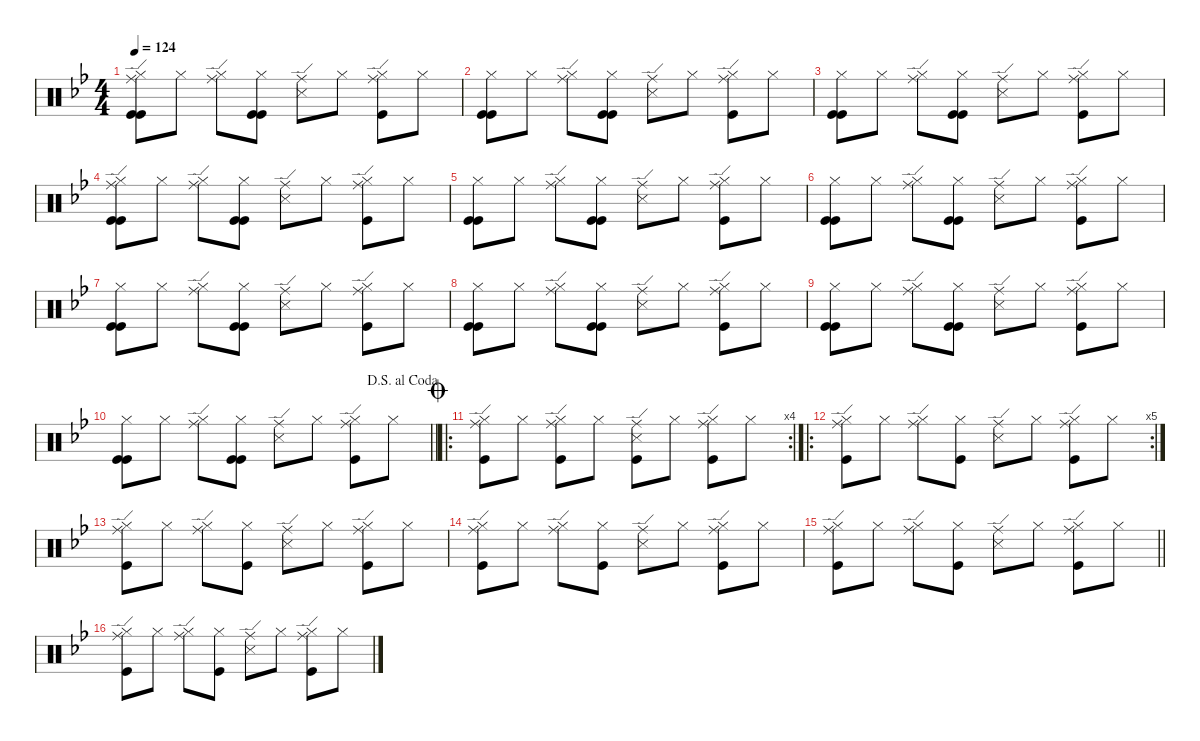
\defaultSystemsLayout 4
\hideDynamics
\bracketExtendMode nobrackets
\singleTrackTrackNamePolicy hidden
\multiTrackTrackNamePolicy hidden
\firstSystemTrackNameMode fullname
\otherSystemsTrackNameOrientation horizontal
\track ("Percussion" "drm.") {defaultSystemsLayout 4 instrument percussion}
\staff {score}
\articulation defaults
\ts (4 4)
\tempo 124
\clef neutral
\ks gminor
("Ride (edge)"{acc forcenatural} "Hi-Hat (closed)"{acc forcenatural} "Kick (hit)"{acc forcenatural} "Kick (hit)"{acc forcenatural}).8{dy f beam Down} "Hi-Hat (closed)"{acc forcenatural}.8{beam Down} ("Ride (edge)"{acc forcenatural} "Hi-Hat (closed)"{acc forcenatural}).8{beam Down} ("Hi-Hat (closed)"{acc forcenatural} "Kick (hit)"{acc forcenatural} "Kick (hit)"{acc forcenatural}).8{beam Down} ("Ride (edge)"{acc forcenatural} "Snare (side stick) 3"{acc forcenatural}).8{beam Down} "Hi-Hat (closed)"{acc forcenatural}.8{beam Down} ("Ride (edge)"{acc forcenatural} "Hi-Hat (closed)"{acc forcenatural} "Kick (hit)"{acc forcenatural}).8{beam Down} "Hi-Hat (closed)"{acc forcenatural}.8{beam Down} |
("Hi-Hat (closed)"{acc forcenatural} "Kick (hit)"{acc forcenatural} "Kick (hit)"{acc forcenatural}).8{beam Down} "Hi-Hat (closed)"{acc forcenatural}.8{beam Down} ("Ride (edge)"{acc forcenatural} "Hi-Hat (closed)"{acc forcenatural}).8{beam Down} ("Hi-Hat (closed)"{acc forcenatural} "Kick (hit)"{acc forcenatural} "Kick (hit)"{acc forcenatural}).8{beam Down} ("Ride (edge)"{acc forcenatural} "Snare (side stick) 3"{acc forcenatural}).8{beam Down} "Hi-Hat (closed)"{acc forcenatural}.8{beam Down} ("Ride (edge)"{acc forcenatural} "Hi-Hat (closed)"{acc forcenatural} "Kick (hit)"{acc forcenatural}).8{beam Down} "Hi-Hat (closed)"{acc forcenatural}.8{beam Down} |
("Hi-Hat (closed)"{acc forcenatural} "Kick (hit)"{acc forcenatural} "Kick (hit)"{acc forcenatural}).8{beam Down} "Hi-Hat (closed)"{acc forcenatural}.8{beam Down} ("Ride (edge)"{acc forcenatural} "Hi-Hat (closed)"{acc forcenatural}).8{beam Down} ("Hi-Hat (closed)"{acc forcenatural} "Kick (hit)"{acc forcenatural} "Kick (hit)"{acc forcenatural}).8{beam Down} ("Ride (edge)"{acc forcenatural} "Snare (side stick) 3"{acc forcenatural}).8{beam Down} "Hi-Hat (closed)"{acc forcenatural}.8{beam Down} ("Ride (edge)"{acc forcenatural} "Hi-Hat (closed)"{acc forcenatural} "Kick (hit)"{acc forcenatural}).8{beam Down} "Hi-Hat (closed)"{acc forcenatural}.8{beam Down} |
("Ride (edge)"{acc forcenatural} "Hi-Hat (closed)"{acc forcenatural} "Kick (hit)"{acc forcenatural} "Kick (hit)"{acc forcenatural}).8{beam Down} "Hi-Hat (closed)"{acc forcenatural}.8{beam Down} ("Ride (edge)"{acc forcenatural} "Hi-Hat (closed)"{acc forcenatural}).8{beam Down} ("Hi-Hat (closed)"{acc forcenatural} "Kick (hit)"{acc forcenatural} "Kick (hit)"{acc forcenatural}).8{beam Down} ("Ride (edge)"{acc forcenatural} "Snare (side stick) 3"{acc forcenatural}).8{beam Down} "Hi-Hat (closed)"{acc forcenatural}.8{beam Down} ("Ride (edge)"{acc forcenatural} "Hi-Hat (closed)"{acc forcenatural} "Kick (hit)"{acc forcenatural}).8{beam Down} "Hi-Hat (closed)"{acc forcenatural}.8{beam Down} |
("Hi-Hat (closed)"{acc forcenatural} "Kick (hit)"{acc forcenatural} "Kick (hit)"{acc forcenatural}).8{beam Down} "Hi-Hat (closed)"{acc forcenatural}.8{beam Down} ("Ride (edge)"{acc forcenatural} "Hi-Hat (closed)"{acc forcenatural}).8{beam Down} ("Hi-Hat (closed)"{acc forcenatural} "Kick (hit)"{acc forcenatural} "Kick (hit)"{acc forcenatural}).8{beam Down} ("Ride (edge)"{acc forcenatural} "Snare (side stick) 3"{acc forcenatural}).8{beam Down} "Hi-Hat (closed)"{acc forcenatural}.8{beam Down} ("Ride (edge)"{acc forcenatural} "Hi-Hat (closed)"{acc forcenatural} "Kick (hit)"{acc forcenatural}).8{beam Down} "Hi-Hat (closed)"{acc forcenatural}.8{beam Down} |
("Hi-Hat (closed)"{acc forcenatural} "Kick (hit)"{acc forcenatural} "Kick (hit)"{acc forcenatural}).8{beam Down} "Hi-Hat (closed)"{acc forcenatural}.8{beam Down} ("Ride (edge)"{acc forcenatural} "Hi-Hat (closed)"{acc forcenatural}).8{beam Down} ("Hi-Hat (closed)"{acc forcenatural} "Kick (hit)"{acc forcenatural} "Kick (hit)"{acc forcenatural}).8{beam Down} ("Ride (edge)"{acc forcenatural} "Snare (side stick) 3"{acc forcenatural}).8{beam Down} "Hi-Hat (closed)"{acc forcenatural}.8{beam Down} ("Ride (edge)"{acc forcenatural} "Hi-Hat (closed)"{acc forcenatural} "Kick (hit)"{acc forcenatural}).8{beam Down} "Hi-Hat (closed)"{acc forcenatural}.8{beam Down} |
("Hi-Hat (closed)"{acc forcenatural} "Kick (hit)"{acc forcenatural} "Kick (hit)"{acc forcenatural}).8{beam Down} "Hi-Hat (closed)"{acc forcenatural}.8{beam Down} ("Ride (edge)"{acc forcenatural} "Hi-Hat (closed)"{acc forcenatural}).8{beam Down} ("Hi-Hat (closed)"{acc forcenatural} "Kick (hit)"{acc forcenatural} "Kick (hit)"{acc forcenatural}).8{beam Down} ("Ride (edge)"{acc forcenatural} "Snare (side stick) 3"{acc forcenatural}).8{beam Down} "Hi-Hat (closed)"{acc forcenatural}.8{beam Down} ("Ride (edge)"{acc forcenatural} "Hi-Hat (closed)"{acc forcenatural} "Kick (hit)"{acc forcenatural}).8{beam Down} "Hi-Hat (closed)"{acc forcenatural}.8{beam Down} |
("Hi-Hat (closed)"{acc forcenatural} "Kick (hit)"{acc forcenatural} "Kick (hit)"{acc forcenatural}).8{beam Down} "Hi-Hat (closed)"{acc forcenatural}.8{beam Down} ("Ride (edge)"{acc forcenatural} "Hi-Hat (closed)"{acc forcenatural}).8{beam Down} ("Hi-Hat (closed)"{acc forcenatural} "Kick (hit)"{acc forcenatural} "Kick (hit)"{acc forcenatural}).8{beam Down} ("Ride (edge)"{acc forcenatural} "Snare (side stick) 3"{acc forcenatural}).8{beam Down} "Hi-Hat (closed)"{acc forcenatural}.8{beam Down} ("Ride (edge)"{acc forcenatural} "Hi-Hat (closed)"{acc forcenatural} "Kick (hit)"{acc forcenatural}).8{beam Down} "Hi-Hat (closed)"{acc forcenatural}.8{beam Down} |
("Hi-Hat (closed)"{acc forcenatural} "Kick (hit)"{acc forcenatural} "Kick (hit)"{acc forcenatural}).8{beam Down} "Hi-Hat (closed)"{acc forcenatural}.8{beam Down} ("Ride (edge)"{acc forcenatural} "Hi-Hat (closed)"{acc forcenatural}).8{beam Down} ("Hi-Hat (closed)"{acc forcenatural} "Kick (hit)"{acc forcenatural} "Kick (hit)"{acc forcenatural}).8{beam Down} ("Ride (edge)"{acc forcenatural} "Snare (side stick) 3"{acc forcenatural}).8{beam Down} "Hi-Hat (closed)"{acc forcenatural}.8{beam Down} ("Ride (edge)"{acc forcenatural} "Hi-Hat (closed)"{acc forcenatural} "Kick (hit)"{acc forcenatural}).8{beam Down} "Hi-Hat (closed)"{acc forcenatural}.8{beam Down} |
\jump dalsegnoalcoda
\barLineRight lightlight
("Hi-Hat (closed)"{acc forcenatural} "Kick (hit)"{acc forcenatural} "Kick (hit)"{acc forcenatural}).8{beam Down} "Hi-Hat (closed)"{acc forcenatural}.8{beam Down} ("Ride (edge)"{acc forcenatural} "Hi-Hat (closed)"{acc forcenatural}).8{beam Down} ("Hi-Hat (closed)"{acc forcenatural} "Kick (hit)"{acc forcenatural} "Kick (hit)"{acc forcenatural}).8{beam Down} ("Ride (edge)"{acc forcenatural} "Snare (side stick) 3"{acc forcenatural}).8{beam Down} "Hi-Hat (closed)"{acc forcenatural}.8{beam Down} ("Ride (edge)"{acc forcenatural} "Hi-Hat (closed)"{acc forcenatural} "Kick (hit)"{acc forcenatural}).8{beam Down} "Hi-Hat (closed)"{acc forcenatural}.8{beam Down} |
\ro
\rc 4
\jump coda
("Ride (edge)"{acc forcenatural} "Hi-Hat (closed)"{acc forcenatural} "Kick (hit)"{acc forcenatural}).8{beam Down} "Hi-Hat (closed)"{acc forcenatural}.8{beam Down} ("Ride (edge)"{acc forcenatural} "Hi-Hat (closed)"{acc forcenatural} "Kick (hit)"{acc forcenatural}).8{beam Down} "Hi-Hat (closed)"{acc forcenatural}.8{beam Down} ("Snare (side stick) 3"{acc forcenatural} "Kick (hit)"{acc forcenatural} "Ride (edge)"{acc forcenatural}).8{beam Down} "Hi-Hat (closed)"{acc forcenatural}.8{beam Down} ("Ride (edge)"{acc forcenatural} "Hi-Hat (closed)"{acc forcenatural} "Kick (hit)"{acc forcenatural}).8{beam Down} "Hi-Hat (closed)"{acc forcenatural}.8{beam Down} |
\ro
\rc 5
("Ride (edge)"{acc forcenatural} "Hi-Hat (closed)"{acc forcenatural} "Kick (hit)"{acc forcenatural}).8{beam Down} "Hi-Hat (closed)"{acc forcenatural}.8{beam Down} ("Ride (edge)"{acc forcenatural} "Hi-Hat (closed)"{acc forcenatural}).8{beam Down} ("Hi-Hat (closed)"{acc forcenatural} "Kick (hit)"{acc forcenatural}).8{beam Down} ("Ride (edge)"{acc forcenatural} "Snare (side stick) 3"{acc forcenatural}).8{beam Down} "Hi-Hat (closed)"{acc forcenatural}.8{beam Down} ("Ride (edge)"{acc forcenatural} "Hi-Hat (closed)"{acc forcenatural} "Kick (hit)"{acc forcenatural}).8{beam Down} "Hi-Hat (closed)"{acc forcenatural}.8{beam Down} |
("Ride (edge)"{acc forcenatural} "Hi-Hat (closed)"{acc forcenatural} "Kick (hit)"{acc forcenatural}).8{beam Down} "Hi-Hat (closed)"{acc forcenatural}.8{beam Down} ("Ride (edge)"{acc forcenatural} "Hi-Hat (closed)"{acc forcenatural}).8{beam Down} ("Hi-Hat (closed)"{acc forcenatural} "Kick (hit)"{acc forcenatural}).8{beam Down} ("Ride (edge)"{acc forcenatural} "Snare (side stick) 3"{acc forcenatural}).8{beam Down} "Hi-Hat (closed)"{acc forcenatural}.8{beam Down} ("Ride (edge)"{acc forcenatural} "Hi-Hat (closed)"{acc forcenatural} "Kick (hit)"{acc forcenatural}).8{beam Down} "Hi-Hat (closed)"{acc forcenatural}.8{beam Down} |
("Ride (edge)"{acc forcenatural} "Hi-Hat (closed)"{acc forcenatural} "Kick (hit)"{acc forcenatural}).8{beam Down} "Hi-Hat (closed)"{acc forcenatural}.8{beam Down} ("Ride (edge)"{acc forcenatural} "Hi-Hat (closed)"{acc forcenatural}).8{beam Down} ("Hi-Hat (closed)"{acc forcenatural} "Kick (hit)"{acc forcenatural}).8{beam Down} ("Ride (edge)"{acc forcenatural} "Snare (side stick) 3"{acc forcenatural}).8{beam Down} "Hi-Hat (closed)"{acc forcenatural}.8{beam Down} ("Ride (edge)"{acc forcenatural} "Hi-Hat (closed)"{acc forcenatural} "Kick (hit)"{acc forcenatural}).8{beam Down} "Hi-Hat (closed)"{acc forcenatural}.8{beam Down} |
\barLineRight lightlight
("Ride (edge)"{acc forcenatural} "Hi-Hat (closed)"{acc forcenatural} "Kick (hit)"{acc forcenatural}).8{beam Down} "Hi-Hat (closed)"{acc forcenatural}.8{beam Down} ("Ride (edge)"{acc forcenatural} "Hi-Hat (closed)"{acc forcenatural}).8{beam Down} ("Hi-Hat (closed)"{acc forcenatural} "Kick (hit)"{acc forcenatural}).8{beam Down} ("Ride (edge)"{acc forcenatural} "Snare (side stick) 3"{acc forcenatural}).8{beam Down} "Hi-Hat (closed)"{acc forcenatural}.8{beam Down} ("Ride (edge)"{acc forcenatural} "Hi-Hat (closed)"{acc forcenatural} "Kick (hit)"{acc forcenatural}).8{beam Down} "Hi-Hat (closed)"{acc forcenatural}.8{beam Down} |
("Ride (edge)"{acc forcenatural} "Hi-Hat (closed)"{acc forcenatural} "Kick (hit)"{acc forcenatural}).8{beam Down} "Hi-Hat (closed)"{acc forcenatural}.8{beam Down} ("Ride (edge)"{acc forcenatural} "Hi-Hat (closed)"{acc forcenatural}).8{beam Down} ("Hi-Hat (closed)"{acc forcenatural} "Kick (hit)"{acc forcenatural}).8{beam Down} ("Ride (edge)"{acc forcenatural} "Snare (side stick) 3"{acc forcenatural}).8{beam Down} "Hi-Hat (closed)"{acc forcenatural}.8{beam Down} ("Ride (edge)"{acc forcenatural} "Hi-Hat (closed)"{acc forcenatural} "Kick (hit)"{acc forcenatural}).8{beam Down} "Hi-Hat (closed)"{acc forcenatural}.8{beam Down}
